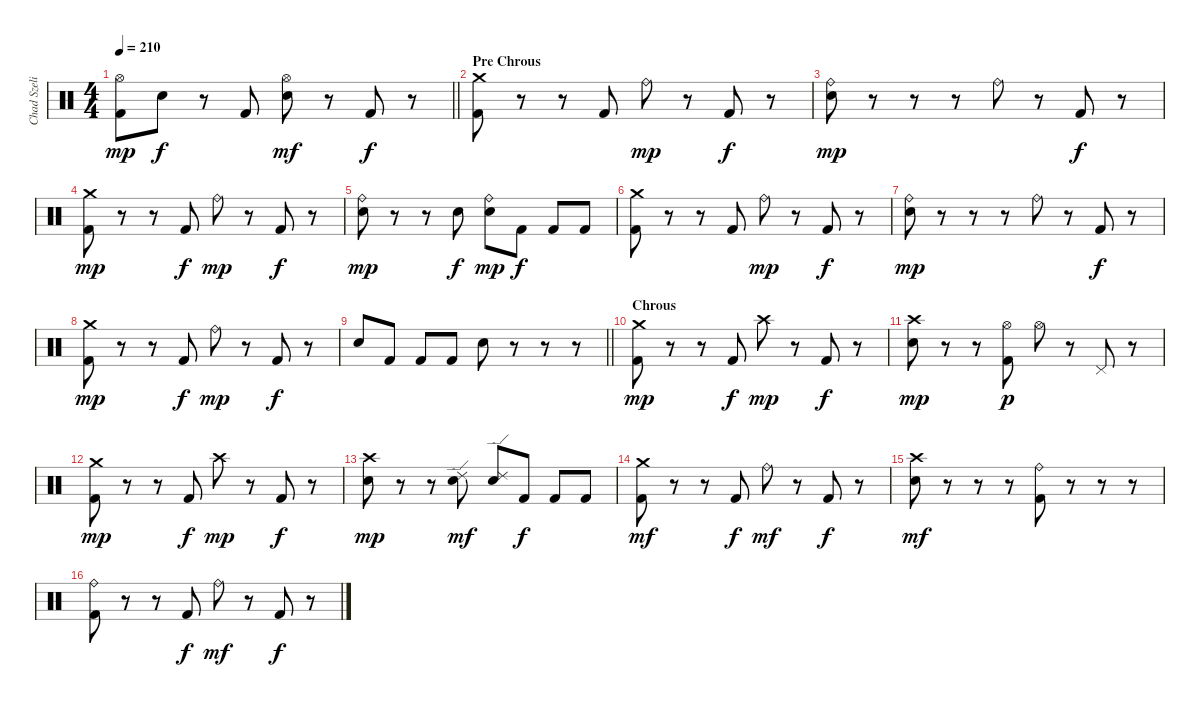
\track ("Chad Szeliga" "Chad Szeli") {instrument percussion}
\staff {score}
\articulation defaults
\ts (4 4)
\tempo 210
\clef neutral
\barLineRight lightlight
\ks c
("Kick (hit) 2" "Hi-Hat (open)").8{dy mp} "Snare (hit) 2".8{dy f} r.8 "Kick (hit) 2".8 ("Snare (hit) 2" "Hi-Hat (open)").8{dy mf} r.8 "Kick (hit) 2".8{dy f} r.8 |
\section ("" "Pre Chrous")
("Kick (hit) 2" "Crash medium (hit)").8 r.8 r.8 "Kick (hit) 2".8 "Ride (bell)".8{dy mp} r.8 "Kick (hit) 2".8{dy f} r.8 |
("Snare (hit) 2" "Ride (bell)").8{dy mp} r.8 r.8 r.8 "Ride (bell)".8 r.8 "Kick (hit) 2".8{dy f} r.8 |
("Kick (hit) 2" "Crash medium (hit)").8{dy mp} r.8 r.8 "Kick (hit) 2".8{dy f} "Ride (bell)".8{dy mp} r.8 "Kick (hit) 2".8{dy f} r.8 |
("Snare (hit) 2" "Ride (bell)").8{dy mp} r.8 r.8 "Snare (hit) 2".8{dy f} ("Snare (hit) 2" "Ride (bell)").8{dy mp} "Kick (hit) 2".8{dy f} "Kick (hit) 2".8 "Kick (hit) 2".8 |
("Kick (hit) 2" "Crash medium (hit)").8 r.8 r.8 "Kick (hit) 2".8 "Ride (bell)".8{dy mp} r.8 "Kick (hit) 2".8{dy f} r.8 |
("Snare (hit) 2" "Ride (bell)").8{dy mp} r.8 r.8 r.8 "Ride (bell)".8 r.8 "Kick (hit) 2".8{dy f} r.8 |
("Kick (hit) 2" "Crash medium (hit)").8{dy mp} r.8 r.8 "Kick (hit) 2".8{dy f} "Ride (bell)".8{dy mp} r.8 "Kick (hit) 2".8{dy f} r.8 |
\barLineRight lightlight "Snare (hit) 2".8 "Kick (hit) 2".8 "Kick (hit) 2".8 "Kick (hit) 2".8 "Snare (hit) 2".8
r.8 r.8 r.8 |
\section ("" "Chrous")
("Kick (hit) 2" "Crash medium (hit)").8{dy mp} r.8 r.8 "Kick (hit) 2".8{dy f} "Crash high (hit)".8{dy mp} r.8 "Kick (hit) 2".8{dy f} r.8 |
("Snare (hit) 2" "Crash high (hit)").8{dy mp} r.8 r.8 ("Kick (hit) 2" "Hi-Hat (open)").8{dy p} "Hi-Hat (open)".8 r.8 "Pedal Hi-Hat (hit)".8 r.8 |
("Kick (hit) 2" "Crash medium (hit)").8{dy mp} r.8 r.8 "Kick (hit) 2".8{dy f} "Crash high (hit)".8{dy mp} r.8 "Kick (hit) 2".8{dy f} r.8 |
("Snare (hit) 2" "Crash high (hit)").8{dy mp} r.8 r.8 ("Snare (hit) 2" "Ride (edge) 2").8{dy mf} ("Snare (hit) 2" "Ride (edge) 2").8 "Kick (hit) 2".8{dy f} "Kick (hit) 2".8 "Kick (hit) 2".8 |
("Kick (hit) 2" "Crash medium (hit)").8{dy mf} r.8 r.8 "Kick (hit) 2".8{dy f} "Ride (bell)".8{dy mf} r.8 "Kick (hit) 2".8{dy f} r.8 |
("Snare (hit) 2" "Crash high (hit)").8{dy mf} r.8 r.8 r.8 ("Kick (hit) 2" "Ride (bell)").8 r.8 r.8 r.8 |
("Kick (hit) 2" "Ride (bell)").8 r.8 r.8 "Kick (hit) 2".8{dy f} "Ride (bell)".8{dy mf} r.8 "Kick (hit) 2".8{dy f} r.8
